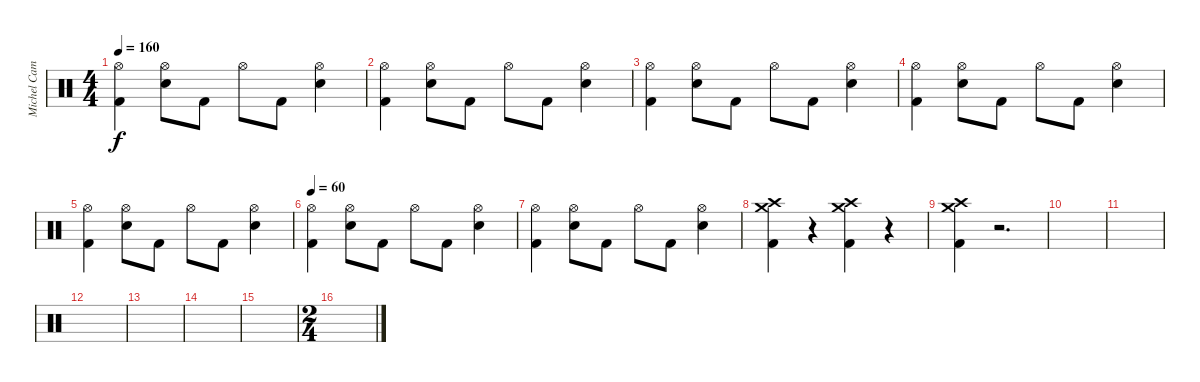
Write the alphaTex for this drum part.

\track ("Michel Camiade" "Michel Cam") {instrument percussion}
\staff {score}
\articulation defaults
\ts (4 4)
\tempo 160
\clef neutral
\ks c
("Hi-Hat (open)" "Kick (hit) 2").4{dy f} ("Hi-Hat (open)" "Snare (hit) 2").8 "Kick (hit) 2".8 "Hi-Hat (open)".8 "Kick (hit) 2".8 ("Hi-Hat (open)" "Snare (hit) 2").4 |
("Hi-Hat (open)" "Kick (hit) 2").4 ("Hi-Hat (open)" "Snare (hit) 2").8 "Kick (hit) 2".8 "Hi-Hat (open)".8 "Kick (hit) 2".8 ("Hi-Hat (open)" "Snare (hit) 2").4 |
("Hi-Hat (open)" "Kick (hit) 2").4 ("Hi-Hat (open)" "Snare (hit) 2").8 "Kick (hit) 2".8 "Hi-Hat (open)".8 "Kick (hit) 2".8 ("Hi-Hat (open)" "Snare (hit) 2").4 |
("Hi-Hat (open)" "Kick (hit) 2").4 ("Hi-Hat (open)" "Snare (hit) 2").8 "Kick (hit) 2".8 "Hi-Hat (open)".8 "Kick (hit) 2".8 ("Hi-Hat (open)" "Snare (hit) 2").4 |
("Hi-Hat (open)" "Kick (hit) 2").4 ("Hi-Hat (open)" "Snare (hit) 2").8 "Kick (hit) 2".8 "Hi-Hat (open)".8 "Kick (hit) 2".8 ("Hi-Hat (open)" "Snare (hit) 2").4 |
\tempo 60
("Hi-Hat (open)" "Kick (hit) 2").4 ("Hi-Hat (open)" "Snare (hit) 2").8 "Kick (hit) 2".8 "Hi-Hat (open)".8 "Kick (hit) 2".8 ("Hi-Hat (open)" "Snare (hit) 2").4 |
("Hi-Hat (open)" "Kick (hit) 2").4 ("Hi-Hat (open)" "Snare (hit) 2").8 "Kick (hit) 2".8 "Hi-Hat (open)".8 "Kick (hit) 2".8 ("Hi-Hat (open)" "Snare (hit) 2").4 |
("Crash high (hit)" "Crash medium (hit)" "Kick (hit) 2").4 r.4 ("Crash high (hit)" "Crash medium (hit)" "Kick (hit) 2").4 r.4 |
("Crash high (hit)" "Crash medium (hit)" "Kick (hit) 2").4 r.2{d} |
|
|
|
|
|
|
\ts (2 4)
